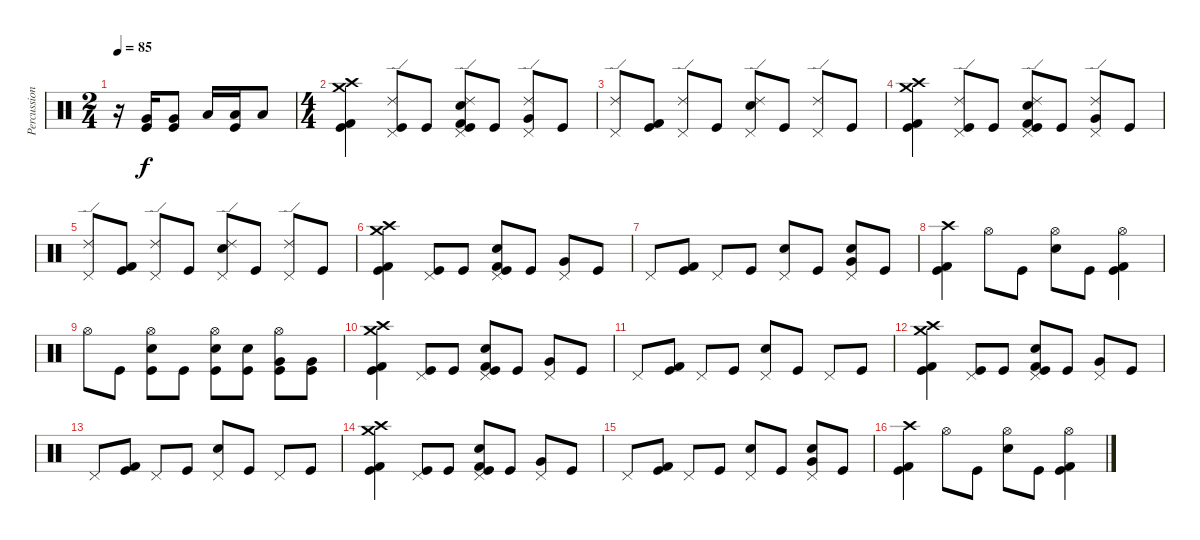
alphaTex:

\track ("Percussion" "Percussion") {instrument percussion}
\staff {score}
\articulation defaults
\ts (2 4)
\tempo 85
\clef neutral
\ks c
r.16{dy f} ("Kick (hit)" "Very Low Tom (hit)").16 ("Kick (hit)" "Very Low Tom (hit)").8 "Low Tom (hit)".16 ("Kick (hit)" "Low Floor Tom (hit)").16 "Low Tom (hit)".8 |
\ts (4 4)
("Kick (hit)" "Kick (hit) 2" "Crash high (hit)" "Crash medium (hit)").4 ("Kick (hit)" "Ride (edge) 2" "Pedal Hi-Hat (hit)").8 "Kick (hit)".8 ("Kick (hit)" "Kick (hit) 2" "Snare (hit) 2" "Ride (edge) 2" "Pedal Hi-Hat (hit)").8 "Kick (hit)".8 ("Very Low Tom (hit)" "Ride (edge) 2" "Pedal Hi-Hat (hit)").8 "Kick (hit)".8 |
("Ride (edge) 2" "Pedal Hi-Hat (hit)").8 ("Kick (hit)" "Kick (hit) 2").8 ("Ride (edge) 2" "Pedal Hi-Hat (hit)").8 "Kick (hit)".8 ("Snare (hit) 2" "Ride (edge) 2" "Pedal Hi-Hat (hit)").8 "Kick (hit)".8 ("Ride (edge) 2" "Pedal Hi-Hat (hit)").8 "Kick (hit)".8 |
("Kick (hit)" "Kick (hit) 2" "Crash high (hit)" "Crash medium (hit)").4 ("Kick (hit)" "Ride (edge) 2" "Pedal Hi-Hat (hit)").8 "Kick (hit)".8 ("Kick (hit)" "Kick (hit) 2" "Snare (hit) 2" "Ride (edge) 2" "Pedal Hi-Hat (hit)").8 "Kick (hit)".8 ("Very Low Tom (hit)" "Ride (edge) 2" "Pedal Hi-Hat (hit)").8 "Kick (hit)".8 |
("Ride (edge) 2" "Pedal Hi-Hat (hit)").8 ("Kick (hit)" "Kick (hit) 2").8 ("Ride (edge) 2" "Pedal Hi-Hat (hit)").8 "Kick (hit)".8 ("Snare (hit) 2" "Ride (edge) 2" "Pedal Hi-Hat (hit)").8 "Kick (hit)".8 ("Ride (edge) 2" "Pedal Hi-Hat (hit)").8 "Kick (hit)".8 |
("Kick (hit)" "Kick (hit) 2" "Crash high (hit)" "Crash medium (hit)").4 ("Kick (hit)" "Pedal Hi-Hat (hit)").8 "Kick (hit)".8 ("Kick (hit)" "Kick (hit) 2" "Snare (hit) 2" "Pedal Hi-Hat (hit)").8 "Kick (hit)".8 ("Very Low Tom (hit)" "Pedal Hi-Hat (hit)").8 "Kick (hit)".8 |
"Pedal Hi-Hat (hit)".8 ("Kick (hit)" "Kick (hit) 2").8 "Pedal Hi-Hat (hit)".8 "Kick (hit)".8 ("Snare (hit) 2" "Pedal Hi-Hat (hit)").8 "Kick (hit)".8 ("Very Low Tom (hit)" "Snare (hit) 2" "Pedal Hi-Hat (hit)").8 "Kick (hit)".8 |
("Kick (hit)" "Kick (hit) 2" "Crash high (hit)").4 "Hi-Hat (open)".8 "Kick (hit)".8 ("Snare (hit) 2" "Hi-Hat (open)").8 "Kick (hit)".8 ("Kick (hit)" "Kick (hit) 2" "Hi-Hat (open)").4 |
"Hi-Hat (open)".8 "Kick (hit)".8 ("Kick (hit)" "Snare (hit) 2" "Hi-Hat (open)").8 "Kick (hit)".8 ("Kick (hit)" "Snare (hit) 2" "Hi-Hat (open)").8 ("Kick (hit)" "Snare (hit) 2").8 ("Kick (hit)" "Very Low Tom (hit)" "Hi-Hat (open)").8 ("Kick (hit)" "Very Low Tom (hit)").8 |
("Kick (hit)" "Kick (hit) 2" "Crash high (hit)" "Crash medium (hit)").4 ("Kick (hit)" "Pedal Hi-Hat (hit)").8 "Kick (hit)".8 ("Kick (hit)" "Kick (hit) 2" "Snare (hit) 2" "Pedal Hi-Hat (hit)").8 "Kick (hit)".8 ("Very Low Tom (hit)" "Pedal Hi-Hat (hit)").8 "Kick (hit)".8 |
"Pedal Hi-Hat (hit)".8 ("Kick (hit)" "Kick (hit) 2").8 "Pedal Hi-Hat (hit)".8 "Kick (hit)".8 ("Snare (hit) 2" "Pedal Hi-Hat (hit)").8 "Kick (hit)".8 "Pedal Hi-Hat (hit)".8 "Kick (hit)".8 |
("Kick (hit)" "Kick (hit) 2" "Crash high (hit)" "Crash medium (hit)").4 ("Kick (hit)" "Pedal Hi-Hat (hit)").8 "Kick (hit)".8 ("Kick (hit)" "Kick (hit) 2" "Snare (hit) 2" "Pedal Hi-Hat (hit)").8 "Kick (hit)".8 ("Very Low Tom (hit)" "Pedal Hi-Hat (hit)").8 "Kick (hit)".8 |
"Pedal Hi-Hat (hit)".8 ("Kick (hit)" "Kick (hit) 2").8 "Pedal Hi-Hat (hit)".8 "Kick (hit)".8 ("Snare (hit) 2" "Pedal Hi-Hat (hit)").8 "Kick (hit)".8 "Pedal Hi-Hat (hit)".8 "Kick (hit)".8 |
("Kick (hit)" "Kick (hit) 2" "Crash high (hit)" "Crash medium (hit)").4 ("Kick (hit)" "Pedal Hi-Hat (hit)").8 "Kick (hit)".8 ("Kick (hit)" "Kick (hit) 2" "Snare (hit) 2" "Pedal Hi-Hat (hit)").8 "Kick (hit)".8 ("Very Low Tom (hit)" "Pedal Hi-Hat (hit)").8 "Kick (hit)".8 |
"Pedal Hi-Hat (hit)".8 ("Kick (hit)" "Kick (hit) 2").8 "Pedal Hi-Hat (hit)".8 "Kick (hit)".8 ("Snare (hit) 2" "Pedal Hi-Hat (hit)").8 "Kick (hit)".8 ("Very Low Tom (hit)" "Snare (hit) 2" "Pedal Hi-Hat (hit)").8 "Kick (hit)".8 |
("Kick (hit)" "Kick (hit) 2" "Crash high (hit)").4 "Hi-Hat (open)".8 "Kick (hit)".8 ("Snare (hit) 2" "Hi-Hat (open)").8 "Kick (hit)".8 ("Kick (hit)" "Kick (hit) 2" "Hi-Hat (open)").4
